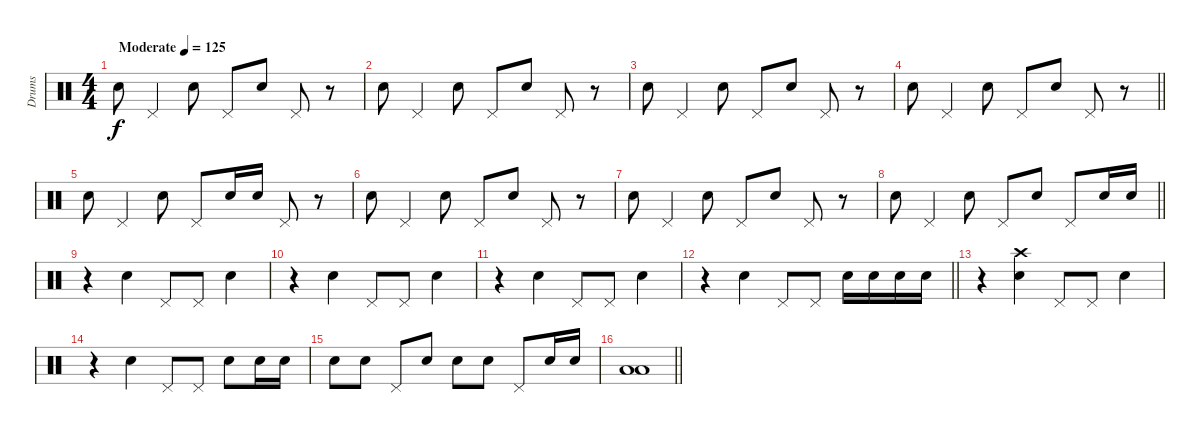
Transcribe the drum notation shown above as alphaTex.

\track ("Drums" "Drums") {instrument percussion}
\staff {score}
\articulation defaults
\ts (4 4)
\tempo (125 "Moderate")
\clef neutral
\ks c "Electric Snare (hit)".8{dy f} "Pedal Hi-Hat (hit)".4 "Electric Snare (hit)".8 "Pedal Hi-Hat (hit)".8 "Electric Snare (hit)".8 "Pedal Hi-Hat (hit)".8
r.8 |
"Electric Snare (hit)".8 "Pedal Hi-Hat (hit)".4 "Electric Snare (hit)".8 "Pedal Hi-Hat (hit)".8 "Electric Snare (hit)".8 "Pedal Hi-Hat (hit)".8 r.8 |
"Electric Snare (hit)".8 "Pedal Hi-Hat (hit)".4 "Electric Snare (hit)".8 "Pedal Hi-Hat (hit)".8 "Electric Snare (hit)".8 "Pedal Hi-Hat (hit)".8 r.8 |
\barLineRight lightlight "Electric Snare (hit)".8 "Pedal Hi-Hat (hit)".4 "Electric Snare (hit)".8 "Pedal Hi-Hat (hit)".8 "Electric Snare (hit)".8 "Pedal Hi-Hat (hit)".8
r.8 |
"Electric Snare (hit)".8 "Pedal Hi-Hat (hit)".4 "Electric Snare (hit)".8 "Pedal Hi-Hat (hit)".8 "Electric Snare (hit)".16 "Electric Snare (hit)".16 "Pedal Hi-Hat (hit)".8 r.8 |
"Electric Snare (hit)".8 "Pedal Hi-Hat (hit)".4 "Electric Snare (hit)".8 "Pedal Hi-Hat (hit)".8 "Electric Snare (hit)".8 "Pedal Hi-Hat (hit)".8 r.8 |
"Electric Snare (hit)".8 "Pedal Hi-Hat (hit)".4 "Electric Snare (hit)".8 "Pedal Hi-Hat (hit)".8 "Electric Snare (hit)".8 "Pedal Hi-Hat (hit)".8 r.8 |
\barLineRight lightlight "Electric Snare (hit)".8 "Pedal Hi-Hat (hit)".4 "Electric Snare (hit)".8 "Pedal Hi-Hat (hit)".8 "Electric Snare (hit)".8 "Pedal Hi-Hat (hit)".8 "Electric Snare (hit)".16 "Electric Snare (hit)".16
|
r.4 "Electric Snare (hit)".4 "Pedal Hi-Hat (hit)".8 "Pedal Hi-Hat (hit)".8 "Electric Snare (hit)".4 |
r.4 "Electric Snare (hit)".4 "Pedal Hi-Hat (hit)".8 "Pedal Hi-Hat (hit)".8 "Electric Snare (hit)".4 |
r.4 "Electric Snare (hit)".4 "Pedal Hi-Hat (hit)".8 "Pedal Hi-Hat (hit)".8 "Electric Snare (hit)".4 |
\barLineRight lightlight
r.4 "Electric Snare (hit)".4 "Pedal Hi-Hat (hit)".8 "Pedal Hi-Hat (hit)".8 "Electric Snare (hit)".16 "Electric Snare (hit)".16 "Electric Snare (hit)".16 "Electric Snare (hit)".16 |
r.4 ("Crash high (hit)" "Electric Snare (hit)").4 "Pedal Hi-Hat (hit)".8 "Pedal Hi-Hat (hit)".8 "Electric Snare (hit)".4 |
r.4 "Electric Snare (hit)".4 "Pedal Hi-Hat (hit)".8 "Pedal Hi-Hat (hit)".8 "Electric Snare (hit)".8 "Electric Snare (hit)".16 "Electric Snare (hit)".16 |
"Electric Snare (hit)".8 "Electric Snare (hit)".8 "Pedal Hi-Hat (hit)".8 "Electric Snare (hit)".8 "Electric Snare (hit)".8 "Electric Snare (hit)".8 "Pedal Hi-Hat (hit)".8 "Electric Snare (hit)".16 "Electric Snare (hit)".16 |
\barLineRight lightlight
("Low Floor Tom (hit)" "Low Floor Tom (hit)").1
